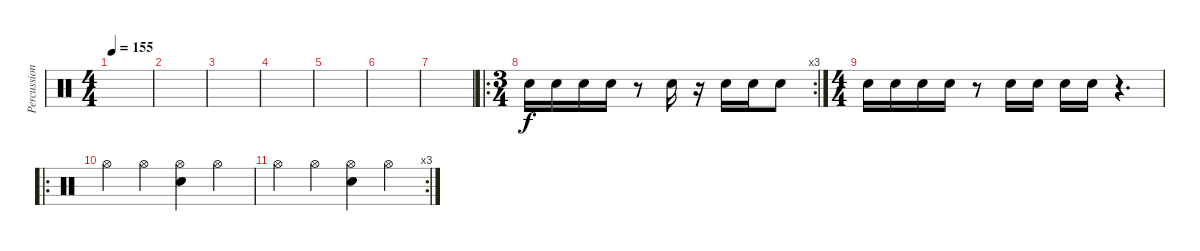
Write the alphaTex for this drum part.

\track ("Percussion" "Percussion") {instrument percussion}
\staff {score}
\articulation defaults
\ts (4 4)
\tempo 155
\clef neutral
\ks c
|
|
|
|
|
|
|
\ro
\rc 3
\ts (3 4)
"Snare (hit) 2".16 "Snare (hit) 2".16 "Snare (hit) 2".16 "Snare (hit) 2".16 r.8 "Snare (hit) 2".16 r.16 "Snare (hit) 2".16 "Snare (hit) 2".16 "Snare (hit) 2".8 |
\ts (4 4)
"Snare (hit) 2".16 "Snare (hit) 2".16 "Snare (hit) 2".16 "Snare (hit) 2".16 r.8 "Snare (hit) 2".16 "Snare (hit) 2".16 "Snare (hit) 2".16 "Snare (hit) 2".16 r.4{d} |
\ro "Hi-Hat (open)".4 "Hi-Hat (open)".4
("Hi-Hat (open)" "Electric Snare (hit)").4 "Hi-Hat (open)".4 |
\rc 3 "Hi-Hat (open)".4 "Hi-Hat (open)".4
("Hi-Hat (open)" "Electric Snare (hit)").4 "Hi-Hat (open)".4
